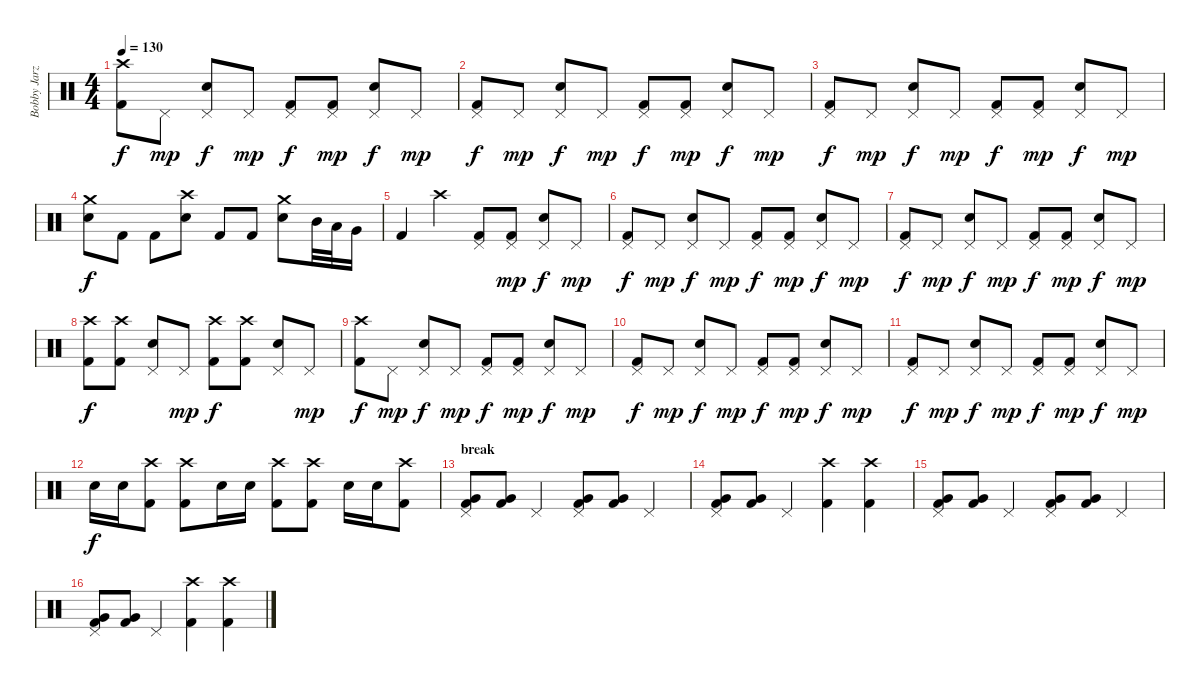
\track ("Bobby Jarzombek" "Bobby Jarz") {instrument percussion}
\staff {score}
\articulation defaults
\ts (4 4)
\tempo 130
\clef neutral
\ks c
("Kick (hit) 2" "Crash high (hit)").8{dy f} "Pedal Hi-Hat (hit)".8{dy mp} ("Pedal Hi-Hat (hit)" "Snare (hit) 2").8{dy f} "Pedal Hi-Hat (hit)".8{dy mp} ("Kick (hit) 2" "Pedal Hi-Hat (hit)").8{dy f} ("Kick (hit) 2" "Pedal Hi-Hat (hit)").8{dy mp} ("Pedal Hi-Hat (hit)" "Snare (hit) 2").8{dy f} "Pedal Hi-Hat (hit)".8{dy mp} |
("Kick (hit) 2" "Pedal Hi-Hat (hit)").8{dy f} "Pedal Hi-Hat (hit)".8{dy mp} ("Pedal Hi-Hat (hit)" "Snare (hit) 2").8{dy f} "Pedal Hi-Hat (hit)".8{dy mp} ("Kick (hit) 2" "Pedal Hi-Hat (hit)").8{dy f} ("Kick (hit) 2" "Pedal Hi-Hat (hit)").8{dy mp} ("Pedal Hi-Hat (hit)" "Snare (hit) 2").8{dy f} "Pedal Hi-Hat (hit)".8{dy mp} |
("Kick (hit) 2" "Pedal Hi-Hat (hit)").8{dy f} "Pedal Hi-Hat (hit)".8{dy mp} ("Pedal Hi-Hat (hit)" "Snare (hit) 2").8{dy f} "Pedal Hi-Hat (hit)".8{dy mp} ("Kick (hit) 2" "Pedal Hi-Hat (hit)").8{dy f} ("Kick (hit) 2" "Pedal Hi-Hat (hit)").8{dy mp} ("Pedal Hi-Hat (hit)" "Snare (hit) 2").8{dy f} "Pedal Hi-Hat (hit)".8{dy mp} |
("Crash medium (hit)" "Snare (hit) 2").8{dy f} "Kick (hit) 2".8 "Kick (hit) 2".8 ("Crash high (hit)" "Snare (hit) 2").8 "Kick (hit) 2".8 "Kick (hit) 2".8 ("Crash medium (hit)" "Snare (hit) 2").8 "Mid Tom (hit)".32 "Low Tom (hit)".32 "Very Low Tom (hit)".16 |
"Kick (hit) 2".4 "Crash high (hit)".4 ("Kick (hit) 2" "Pedal Hi-Hat (hit)").8 ("Kick (hit) 2" "Pedal Hi-Hat (hit)").8{dy mp} ("Pedal Hi-Hat (hit)" "Snare (hit) 2").8{dy f} "Pedal Hi-Hat (hit)".8{dy mp} |
("Kick (hit) 2" "Pedal Hi-Hat (hit)").8{dy f} "Pedal Hi-Hat (hit)".8{dy mp} ("Pedal Hi-Hat (hit)" "Snare (hit) 2").8{dy f} "Pedal Hi-Hat (hit)".8{dy mp} ("Kick (hit) 2" "Pedal Hi-Hat (hit)").8{dy f} ("Kick (hit) 2" "Pedal Hi-Hat (hit)").8{dy mp} ("Pedal Hi-Hat (hit)" "Snare (hit) 2").8{dy f} "Pedal Hi-Hat (hit)".8{dy mp} |
("Kick (hit) 2" "Pedal Hi-Hat (hit)").8{dy f} "Pedal Hi-Hat (hit)".8{dy mp} ("Pedal Hi-Hat (hit)" "Snare (hit) 2").8{dy f} "Pedal Hi-Hat (hit)".8{dy mp} ("Kick (hit) 2" "Pedal Hi-Hat (hit)").8{dy f} ("Kick (hit) 2" "Pedal Hi-Hat (hit)").8{dy mp} ("Pedal Hi-Hat (hit)" "Snare (hit) 2").8{dy f} "Pedal Hi-Hat (hit)".8{dy mp} |
("Kick (hit) 2" "Crash high (hit)").8{dy f} ("Kick (hit) 2" "Crash high (hit)").8 ("Pedal Hi-Hat (hit)" "Snare (hit) 2").8 "Pedal Hi-Hat (hit)".8{dy mp} ("Kick (hit) 2" "Crash high (hit)").8{dy f} ("Kick (hit) 2" "Crash high (hit)").8 ("Pedal Hi-Hat (hit)" "Snare (hit) 2").8 "Pedal Hi-Hat (hit)".8{dy mp} |
("Kick (hit) 2" "Crash high (hit)").8{dy f} "Pedal Hi-Hat (hit)".8{dy mp} ("Pedal Hi-Hat (hit)" "Snare (hit) 2").8{dy f} "Pedal Hi-Hat (hit)".8{dy mp} ("Kick (hit) 2" "Pedal Hi-Hat (hit)").8{dy f} ("Kick (hit) 2" "Pedal Hi-Hat (hit)").8{dy mp} ("Pedal Hi-Hat (hit)" "Snare (hit) 2").8{dy f} "Pedal Hi-Hat (hit)".8{dy mp} |
("Kick (hit) 2" "Pedal Hi-Hat (hit)").8{dy f} "Pedal Hi-Hat (hit)".8{dy mp} ("Pedal Hi-Hat (hit)" "Snare (hit) 2").8{dy f} "Pedal Hi-Hat (hit)".8{dy mp} ("Kick (hit) 2" "Pedal Hi-Hat (hit)").8{dy f} ("Kick (hit) 2" "Pedal Hi-Hat (hit)").8{dy mp} ("Pedal Hi-Hat (hit)" "Snare (hit) 2").8{dy f} "Pedal Hi-Hat (hit)".8{dy mp} |
("Kick (hit) 2" "Pedal Hi-Hat (hit)").8{dy f} "Pedal Hi-Hat (hit)".8{dy mp} ("Pedal Hi-Hat (hit)" "Snare (hit) 2").8{dy f} "Pedal Hi-Hat (hit)".8{dy mp} ("Kick (hit) 2" "Pedal Hi-Hat (hit)").8{dy f} ("Kick (hit) 2" "Pedal Hi-Hat (hit)").8{dy mp} ("Pedal Hi-Hat (hit)" "Snare (hit) 2").8{dy f} "Pedal Hi-Hat (hit)".8{dy mp} |
"Snare (hit) 2".16{dy f} "Snare (hit) 2".16 ("Kick (hit) 2" "Crash high (hit)").8 ("Kick (hit) 2" "Crash high (hit)").8 "Snare (hit) 2".16 "Snare (hit) 2".16 ("Kick (hit) 2" "Crash high (hit)").8 ("Kick (hit) 2" "Crash high (hit)").8 "Snare (hit) 2".16 "Snare (hit) 2".16 ("Kick (hit) 2" "Crash high (hit)").8 |
\section ("" "break")
("Kick (hit) 2" "Pedal Hi-Hat (hit)" "Very Low Tom (hit)").8 ("Kick (hit) 2" "Very Low Tom (hit)").8 "Pedal Hi-Hat (hit)".4 ("Kick (hit) 2" "Pedal Hi-Hat (hit)" "Very Low Tom (hit)").8 ("Kick (hit) 2" "Very Low Tom (hit)").8 "Pedal Hi-Hat (hit)".4 |
("Kick (hit) 2" "Pedal Hi-Hat (hit)" "Very Low Tom (hit)").8 ("Kick (hit) 2" "Very Low Tom (hit)").8 "Pedal Hi-Hat (hit)".4 ("Kick (hit) 2" "Crash high (hit)").4 ("Kick (hit) 2" "Crash high (hit)").4 |
("Kick (hit) 2" "Pedal Hi-Hat (hit)" "Very Low Tom (hit)").8 ("Kick (hit) 2" "Very Low Tom (hit)").8 "Pedal Hi-Hat (hit)".4 ("Kick (hit) 2" "Pedal Hi-Hat (hit)" "Very Low Tom (hit)").8 ("Kick (hit) 2" "Very Low Tom (hit)").8 "Pedal Hi-Hat (hit)".4 |
("Kick (hit) 2" "Pedal Hi-Hat (hit)" "Very Low Tom (hit)").8 ("Kick (hit) 2" "Very Low Tom (hit)").8 "Pedal Hi-Hat (hit)".4 ("Kick (hit) 2" "Crash high (hit)").4 ("Kick (hit) 2" "Crash high (hit)").4
